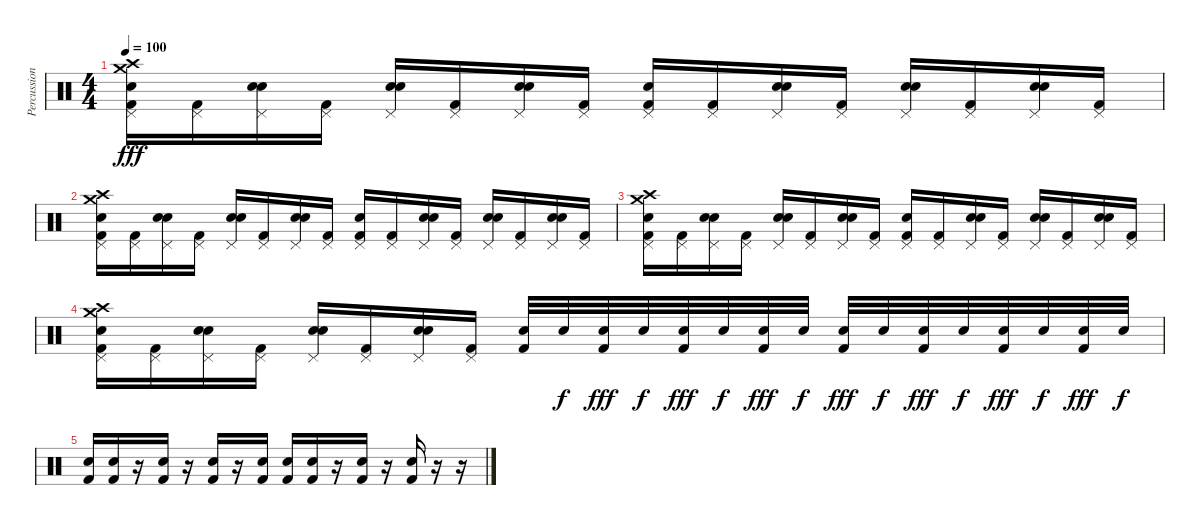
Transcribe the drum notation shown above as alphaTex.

\track ("Percussions" "Percussion") {instrument percussion}
\staff {score}
\articulation defaults
\ts (4 4)
\tempo 100
\clef neutral
\ks c
("Crash high (hit)" "Crash medium (hit)" "Snare (hit) 2" "Pedal Hi-Hat (hit)" "Kick (hit) 2").16{dy fff} ("Pedal Hi-Hat (hit)" "Kick (hit) 2").16 ("Snare (hit) 2" "Pedal Hi-Hat (hit)" "Snare (hit)").16 ("Pedal Hi-Hat (hit)" "Kick (hit) 2").16 ("Snare (hit) 2" "Pedal Hi-Hat (hit)" "Snare (hit)").16 ("Pedal Hi-Hat (hit)" "Kick (hit) 2").16 ("Snare (hit) 2" "Pedal Hi-Hat (hit)" "Snare (hit)").16 ("Pedal Hi-Hat (hit)" "Kick (hit) 2").16 ("Snare (hit) 2" "Pedal Hi-Hat (hit)" "Kick (hit) 2").16 ("Pedal Hi-Hat (hit)" "Kick (hit) 2").16 ("Snare (hit) 2" "Pedal Hi-Hat (hit)" "Snare (hit)").16 ("Pedal Hi-Hat (hit)" "Kick (hit) 2").16 ("Snare (hit) 2" "Pedal Hi-Hat (hit)" "Snare (hit)").16 ("Pedal Hi-Hat (hit)" "Kick (hit) 2").16 ("Snare (hit) 2" "Pedal Hi-Hat (hit)" "Snare (hit)").16 ("Pedal Hi-Hat (hit)" "Kick (hit) 2").16 |
("Crash high (hit)" "Crash medium (hit)" "Snare (hit) 2" "Pedal Hi-Hat (hit)" "Kick (hit) 2").16 ("Pedal Hi-Hat (hit)" "Kick (hit) 2").16 ("Snare (hit) 2" "Pedal Hi-Hat (hit)" "Snare (hit)").16 ("Pedal Hi-Hat (hit)" "Kick (hit) 2").16 ("Snare (hit) 2" "Pedal Hi-Hat (hit)" "Snare (hit)").16 ("Pedal Hi-Hat (hit)" "Kick (hit) 2").16 ("Snare (hit) 2" "Pedal Hi-Hat (hit)" "Snare (hit)").16 ("Pedal Hi-Hat (hit)" "Kick (hit) 2").16 ("Snare (hit) 2" "Pedal Hi-Hat (hit)" "Kick (hit) 2").16 ("Pedal Hi-Hat (hit)" "Kick (hit) 2").16 ("Snare (hit) 2" "Pedal Hi-Hat (hit)" "Snare (hit)").16 ("Pedal Hi-Hat (hit)" "Kick (hit) 2").16 ("Snare (hit) 2" "Pedal Hi-Hat (hit)" "Snare (hit)").16 ("Pedal Hi-Hat (hit)" "Kick (hit) 2").16 ("Snare (hit) 2" "Pedal Hi-Hat (hit)" "Snare (hit)").16 ("Pedal Hi-Hat (hit)" "Kick (hit) 2").16 |
("Crash high (hit)" "Crash medium (hit)" "Snare (hit) 2" "Pedal Hi-Hat (hit)" "Kick (hit) 2").16 ("Pedal Hi-Hat (hit)" "Kick (hit) 2").16 ("Snare (hit) 2" "Pedal Hi-Hat (hit)" "Snare (hit)").16 ("Pedal Hi-Hat (hit)" "Kick (hit) 2").16 ("Snare (hit) 2" "Pedal Hi-Hat (hit)" "Snare (hit)").16 ("Pedal Hi-Hat (hit)" "Kick (hit) 2").16 ("Snare (hit) 2" "Pedal Hi-Hat (hit)" "Snare (hit)").16 ("Pedal Hi-Hat (hit)" "Kick (hit) 2").16 ("Snare (hit) 2" "Pedal Hi-Hat (hit)" "Kick (hit) 2").16 ("Pedal Hi-Hat (hit)" "Kick (hit) 2").16 ("Snare (hit) 2" "Pedal Hi-Hat (hit)" "Snare (hit)").16 ("Pedal Hi-Hat (hit)" "Kick (hit) 2").16 ("Snare (hit) 2" "Pedal Hi-Hat (hit)" "Snare (hit)").16 ("Pedal Hi-Hat (hit)" "Kick (hit) 2").16 ("Snare (hit) 2" "Pedal Hi-Hat (hit)" "Snare (hit)").16 ("Pedal Hi-Hat (hit)" "Kick (hit) 2").16 |
("Crash high (hit)" "Crash medium (hit)" "Snare (hit) 2" "Pedal Hi-Hat (hit)" "Kick (hit) 2").16 ("Pedal Hi-Hat (hit)" "Kick (hit) 2").16 ("Snare (hit) 2" "Pedal Hi-Hat (hit)" "Snare (hit)").16 ("Pedal Hi-Hat (hit)" "Kick (hit) 2").16 ("Snare (hit) 2" "Pedal Hi-Hat (hit)" "Snare (hit)").16 ("Pedal Hi-Hat (hit)" "Kick (hit) 2").16 ("Snare (hit) 2" "Pedal Hi-Hat (hit)" "Snare (hit)").16 ("Pedal Hi-Hat (hit)" "Kick (hit) 2").16 ("Electric Snare (hit)" "Kick (hit) 2").32 "Electric Snare (hit)".32{dy f} ("Electric Snare (hit)" "Kick (hit) 2").32{dy fff} "Electric Snare (hit)".32{dy f} ("Electric Snare (hit)" "Kick (hit) 2").32{dy fff} "Electric Snare (hit)".32{dy f} ("Electric Snare (hit)" "Kick (hit) 2").32{dy fff} "Electric Snare (hit)".32{dy f} ("Electric Snare (hit)" "Kick (hit) 2").32{dy fff} "Electric Snare (hit)".32{dy f} ("Electric Snare (hit)" "Kick (hit) 2").32{dy fff} "Electric Snare (hit)".32{dy f} ("Electric Snare (hit)" "Kick (hit) 2").32{dy fff} "Electric Snare (hit)".32{dy f} ("Electric Snare (hit)" "Kick (hit) 2").32{dy fff} "Electric Snare (hit)".32{dy f} |
("Snare (hit) 2" "Kick (hit) 2").16 ("Snare (hit) 2" "Kick (hit) 2").16 r.16 ("Snare (hit) 2" "Kick (hit) 2").16 r.16 ("Snare (hit) 2" "Kick (hit) 2").16 r.16 ("Snare (hit) 2" "Kick (hit) 2").16 ("Snare (hit) 2" "Kick (hit) 2").16 ("Snare (hit) 2" "Kick (hit) 2").16 r.16 ("Snare (hit) 2" "Kick (hit) 2").16 r.16 ("Kick (hit) 2" "Snare (hit) 2").16 r.16 r.16
